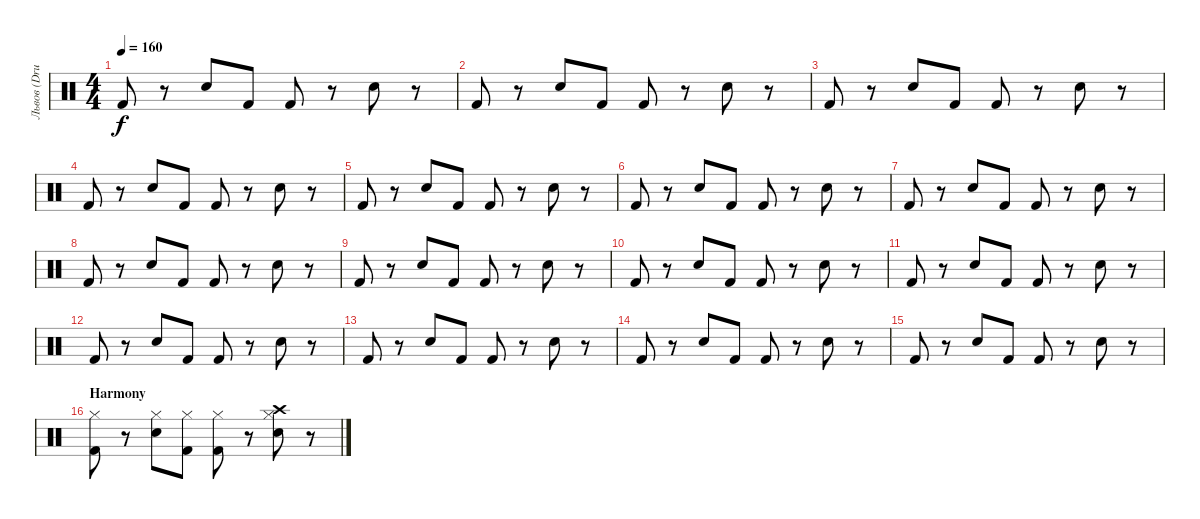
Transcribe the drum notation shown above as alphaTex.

\track ("Львов (Drums)" "Львов (Dru") {instrument percussion}
\staff {score}
\articulation defaults
\ts (4 4)
\tempo 160
\clef neutral
\ks c "Kick (hit) 2".8{dy f}
r.8 "Electric Snare (hit)".8 "Kick (hit) 2".8 "Kick (hit) 2".8 r.8 "Electric Snare (hit)".8 r.8 |
"Kick (hit) 2".8 r.8 "Electric Snare (hit)".8 "Kick (hit) 2".8 "Kick (hit) 2".8 r.8 "Electric Snare (hit)".8 r.8 |
"Kick (hit) 2".8 r.8 "Electric Snare (hit)".8 "Kick (hit) 2".8 "Kick (hit) 2".8 r.8 "Electric Snare (hit)".8 r.8 |
"Kick (hit) 2".8 r.8 "Electric Snare (hit)".8 "Kick (hit) 2".8 "Kick (hit) 2".8 r.8 "Electric Snare (hit)".8 r.8 |
"Kick (hit) 2".8 r.8 "Electric Snare (hit)".8 "Kick (hit) 2".8 "Kick (hit) 2".8 r.8 "Electric Snare (hit)".8 r.8 |
"Kick (hit) 2".8 r.8 "Electric Snare (hit)".8 "Kick (hit) 2".8 "Kick (hit) 2".8 r.8 "Electric Snare (hit)".8 r.8 |
"Kick (hit) 2".8 r.8 "Electric Snare (hit)".8 "Kick (hit) 2".8 "Kick (hit) 2".8 r.8 "Electric Snare (hit)".8 r.8 |
"Kick (hit) 2".8 r.8 "Electric Snare (hit)".8 "Kick (hit) 2".8 "Kick (hit) 2".8 r.8 "Electric Snare (hit)".8 r.8 |
"Kick (hit) 2".8 r.8 "Electric Snare (hit)".8 "Kick (hit) 2".8 "Kick (hit) 2".8 r.8 "Electric Snare (hit)".8 r.8 |
"Kick (hit) 2".8 r.8 "Electric Snare (hit)".8 "Kick (hit) 2".8 "Kick (hit) 2".8 r.8 "Electric Snare (hit)".8 r.8 |
"Kick (hit) 2".8 r.8 "Electric Snare (hit)".8 "Kick (hit) 2".8 "Kick (hit) 2".8 r.8 "Electric Snare (hit)".8 r.8 |
"Kick (hit) 2".8 r.8 "Electric Snare (hit)".8 "Kick (hit) 2".8 "Kick (hit) 2".8 r.8 "Electric Snare (hit)".8 r.8 |
"Kick (hit) 2".8 r.8 "Electric Snare (hit)".8 "Kick (hit) 2".8 "Kick (hit) 2".8 r.8 "Electric Snare (hit)".8 r.8 |
"Kick (hit) 2".8 r.8 "Electric Snare (hit)".8 "Kick (hit) 2".8 "Kick (hit) 2".8 r.8 "Electric Snare (hit)".8 r.8 |
"Kick (hit) 2".8 r.8 "Electric Snare (hit)".8 "Kick (hit) 2".8 "Kick (hit) 2".8 r.8 "Electric Snare (hit)".8 r.8 |
\section ("" "Harmony")
("Kick (hit) 2" "Hi-Hat (closed)").8 r.8 ("Electric Snare (hit)" "Hi-Hat (closed)").8 ("Kick (hit) 2" "Hi-Hat (closed)").8 ("Kick (hit) 2" "Hi-Hat (closed)").8 r.8 ("Electric Snare (hit)" "Crash high (hit)" "Hi-Hat (closed)").8 r.8
